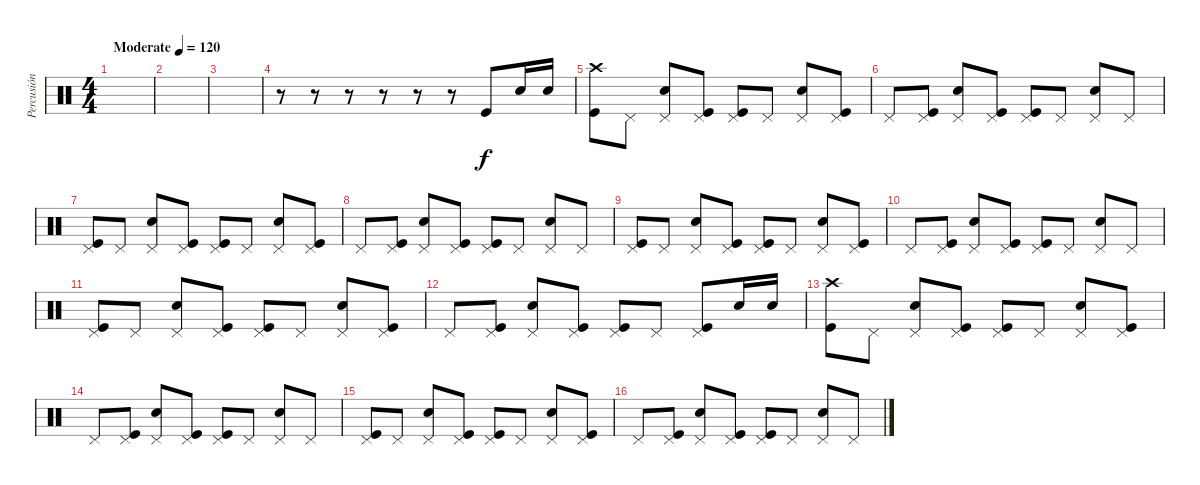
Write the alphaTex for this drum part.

\track ("Percusión" "Percusión") {instrument percussion}
\staff {score}
\articulation defaults
\ts (4 4)
\tempo (120 "Moderate")
\clef neutral
\ks c
|
|
|
r.8 r.8 r.8 r.8 r.8 r.8 "Kick (hit)".8 "Electric Snare (hit)".16 "Electric Snare (hit)".16 |
("Crash high (hit)" "Kick (hit)").8 "Pedal Hi-Hat (hit)".8 ("Pedal Hi-Hat (hit)" "Electric Snare (hit)").8 ("Pedal Hi-Hat (hit)" "Kick (hit)").8 ("Pedal Hi-Hat (hit)" "Kick (hit)").8 "Pedal Hi-Hat (hit)".8 ("Pedal Hi-Hat (hit)" "Electric Snare (hit)").8 ("Pedal Hi-Hat (hit)" "Kick (hit)").8 |
"Pedal Hi-Hat (hit)".8 ("Pedal Hi-Hat (hit)" "Kick (hit)").8 ("Pedal Hi-Hat (hit)" "Electric Snare (hit)").8 ("Pedal Hi-Hat (hit)" "Kick (hit)").8 ("Pedal Hi-Hat (hit)" "Kick (hit)").8 "Pedal Hi-Hat (hit)".8 ("Pedal Hi-Hat (hit)" "Electric Snare (hit)").8 "Pedal Hi-Hat (hit)".8 |
("Pedal Hi-Hat (hit)" "Kick (hit)").8 "Pedal Hi-Hat (hit)".8 ("Pedal Hi-Hat (hit)" "Electric Snare (hit)").8 ("Pedal Hi-Hat (hit)" "Kick (hit)").8 ("Pedal Hi-Hat (hit)" "Kick (hit)").8 "Pedal Hi-Hat (hit)".8 ("Pedal Hi-Hat (hit)" "Electric Snare (hit)").8 ("Pedal Hi-Hat (hit)" "Kick (hit)").8 |
"Pedal Hi-Hat (hit)".8 ("Pedal Hi-Hat (hit)" "Kick (hit)").8 ("Pedal Hi-Hat (hit)" "Electric Snare (hit)").8 ("Pedal Hi-Hat (hit)" "Kick (hit)").8 ("Pedal Hi-Hat (hit)" "Kick (hit)").8 "Pedal Hi-Hat (hit)".8 ("Pedal Hi-Hat (hit)" "Electric Snare (hit)").8 "Pedal Hi-Hat (hit)".8 |
("Pedal Hi-Hat (hit)" "Kick (hit)").8 "Pedal Hi-Hat (hit)".8 ("Pedal Hi-Hat (hit)" "Electric Snare (hit)").8 ("Pedal Hi-Hat (hit)" "Kick (hit)").8 ("Pedal Hi-Hat (hit)" "Kick (hit)").8 "Pedal Hi-Hat (hit)".8 ("Pedal Hi-Hat (hit)" "Electric Snare (hit)").8 ("Pedal Hi-Hat (hit)" "Kick (hit)").8 |
"Pedal Hi-Hat (hit)".8 ("Pedal Hi-Hat (hit)" "Kick (hit)").8 ("Pedal Hi-Hat (hit)" "Electric Snare (hit)").8 ("Pedal Hi-Hat (hit)" "Kick (hit)").8 ("Pedal Hi-Hat (hit)" "Kick (hit)").8 "Pedal Hi-Hat (hit)".8 ("Pedal Hi-Hat (hit)" "Electric Snare (hit)").8 "Pedal Hi-Hat (hit)".8 |
("Pedal Hi-Hat (hit)" "Kick (hit)").8 "Pedal Hi-Hat (hit)".8 ("Pedal Hi-Hat (hit)" "Electric Snare (hit)").8 ("Pedal Hi-Hat (hit)" "Kick (hit)").8 ("Pedal Hi-Hat (hit)" "Kick (hit)").8 "Pedal Hi-Hat (hit)".8 ("Pedal Hi-Hat (hit)" "Electric Snare (hit)").8 ("Pedal Hi-Hat (hit)" "Kick (hit)").8 |
"Pedal Hi-Hat (hit)".8 ("Pedal Hi-Hat (hit)" "Kick (hit)").8 ("Pedal Hi-Hat (hit)" "Electric Snare (hit)").8 ("Pedal Hi-Hat (hit)" "Kick (hit)").8 ("Pedal Hi-Hat (hit)" "Kick (hit)").8 "Pedal Hi-Hat (hit)".8 ("Pedal Hi-Hat (hit)" "Kick (hit)").8 "Electric Snare (hit)".16 "Electric Snare (hit)".16 |
("Crash high (hit)" "Kick (hit)").8 "Pedal Hi-Hat (hit)".8 ("Pedal Hi-Hat (hit)" "Electric Snare (hit)").8 ("Pedal Hi-Hat (hit)" "Kick (hit)").8 ("Pedal Hi-Hat (hit)" "Kick (hit)").8 "Pedal Hi-Hat (hit)".8 ("Pedal Hi-Hat (hit)" "Electric Snare (hit)").8 ("Pedal Hi-Hat (hit)" "Kick (hit)").8 |
"Pedal Hi-Hat (hit)".8 ("Pedal Hi-Hat (hit)" "Kick (hit)").8 ("Pedal Hi-Hat (hit)" "Electric Snare (hit)").8 ("Pedal Hi-Hat (hit)" "Kick (hit)").8 ("Pedal Hi-Hat (hit)" "Kick (hit)").8 "Pedal Hi-Hat (hit)".8 ("Pedal Hi-Hat (hit)" "Electric Snare (hit)").8 "Pedal Hi-Hat (hit)".8 |
("Pedal Hi-Hat (hit)" "Kick (hit)").8 "Pedal Hi-Hat (hit)".8 ("Pedal Hi-Hat (hit)" "Electric Snare (hit)").8 ("Pedal Hi-Hat (hit)" "Kick (hit)").8 ("Pedal Hi-Hat (hit)" "Kick (hit)").8 "Pedal Hi-Hat (hit)".8 ("Pedal Hi-Hat (hit)" "Electric Snare (hit)").8 ("Pedal Hi-Hat (hit)" "Kick (hit)").8 |
"Pedal Hi-Hat (hit)".8 ("Pedal Hi-Hat (hit)" "Kick (hit)").8 ("Pedal Hi-Hat (hit)" "Electric Snare (hit)").8 ("Pedal Hi-Hat (hit)" "Kick (hit)").8 ("Pedal Hi-Hat (hit)" "Kick (hit)").8 "Pedal Hi-Hat (hit)".8 ("Pedal Hi-Hat (hit)" "Electric Snare (hit)").8 "Pedal Hi-Hat (hit)".8
